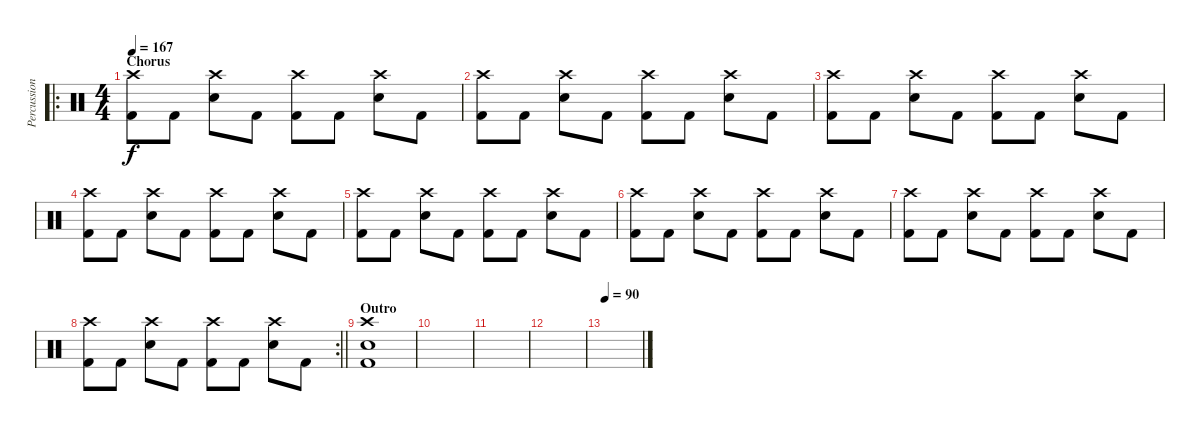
\track ("Percussion" "Percussion") {instrument percussion}
\staff {score}
\articulation defaults
\ro
\ts (4 4)
\section ("" "Chorus")
\tempo 167
\clef neutral
\ks c
("Crash high (hit)" "Kick (hit) 2").8{dy f} "Kick (hit) 2".8 ("Crash high (hit)" "Electric Snare (hit)").8 "Kick (hit) 2".8 ("Crash high (hit)" "Kick (hit) 2").8 "Kick (hit) 2".8 ("Crash high (hit)" "Electric Snare (hit)").8 "Kick (hit) 2".8 |
("Crash high (hit)" "Kick (hit) 2").8 "Kick (hit) 2".8 ("Crash high (hit)" "Electric Snare (hit)").8 "Kick (hit) 2".8 ("Crash high (hit)" "Kick (hit) 2").8 "Kick (hit) 2".8 ("Crash high (hit)" "Electric Snare (hit)").8 "Kick (hit) 2".8 |
("Crash high (hit)" "Kick (hit) 2").8 "Kick (hit) 2".8 ("Crash high (hit)" "Electric Snare (hit)").8 "Kick (hit) 2".8 ("Crash high (hit)" "Kick (hit) 2").8 "Kick (hit) 2".8 ("Crash high (hit)" "Electric Snare (hit)").8 "Kick (hit) 2".8 |
("Crash high (hit)" "Kick (hit) 2").8 "Kick (hit) 2".8 ("Crash high (hit)" "Electric Snare (hit)").8 "Kick (hit) 2".8 ("Crash high (hit)" "Kick (hit) 2").8 "Kick (hit) 2".8 ("Crash high (hit)" "Electric Snare (hit)").8 "Kick (hit) 2".8 |
("Crash high (hit)" "Kick (hit) 2").8 "Kick (hit) 2".8 ("Crash high (hit)" "Electric Snare (hit)").8 "Kick (hit) 2".8 ("Crash high (hit)" "Kick (hit) 2").8 "Kick (hit) 2".8 ("Crash high (hit)" "Electric Snare (hit)").8 "Kick (hit) 2".8 |
("Crash high (hit)" "Kick (hit) 2").8 "Kick (hit) 2".8 ("Crash high (hit)" "Electric Snare (hit)").8 "Kick (hit) 2".8 ("Crash high (hit)" "Kick (hit) 2").8 "Kick (hit) 2".8 ("Crash high (hit)" "Electric Snare (hit)").8 "Kick (hit) 2".8 |
("Crash high (hit)" "Kick (hit) 2").8 "Kick (hit) 2".8 ("Crash high (hit)" "Electric Snare (hit)").8 "Kick (hit) 2".8 ("Crash high (hit)" "Kick (hit) 2").8 "Kick (hit) 2".8 ("Crash high (hit)" "Electric Snare (hit)").8 "Kick (hit) 2".8 |
\rc 2
\barLineRight lightlight
("Crash high (hit)" "Kick (hit) 2").8 "Kick (hit) 2".8 ("Crash high (hit)" "Electric Snare (hit)").8 "Kick (hit) 2".8 ("Crash high (hit)" "Kick (hit) 2").8 "Kick (hit) 2".8 ("Crash high (hit)" "Electric Snare (hit)").8 "Kick (hit) 2".8 |
\section ("" "Outro")
("Crash high (hit)" "Electric Snare (hit)" "Kick (hit) 2").1 |
|
|
|
\tempo 90
